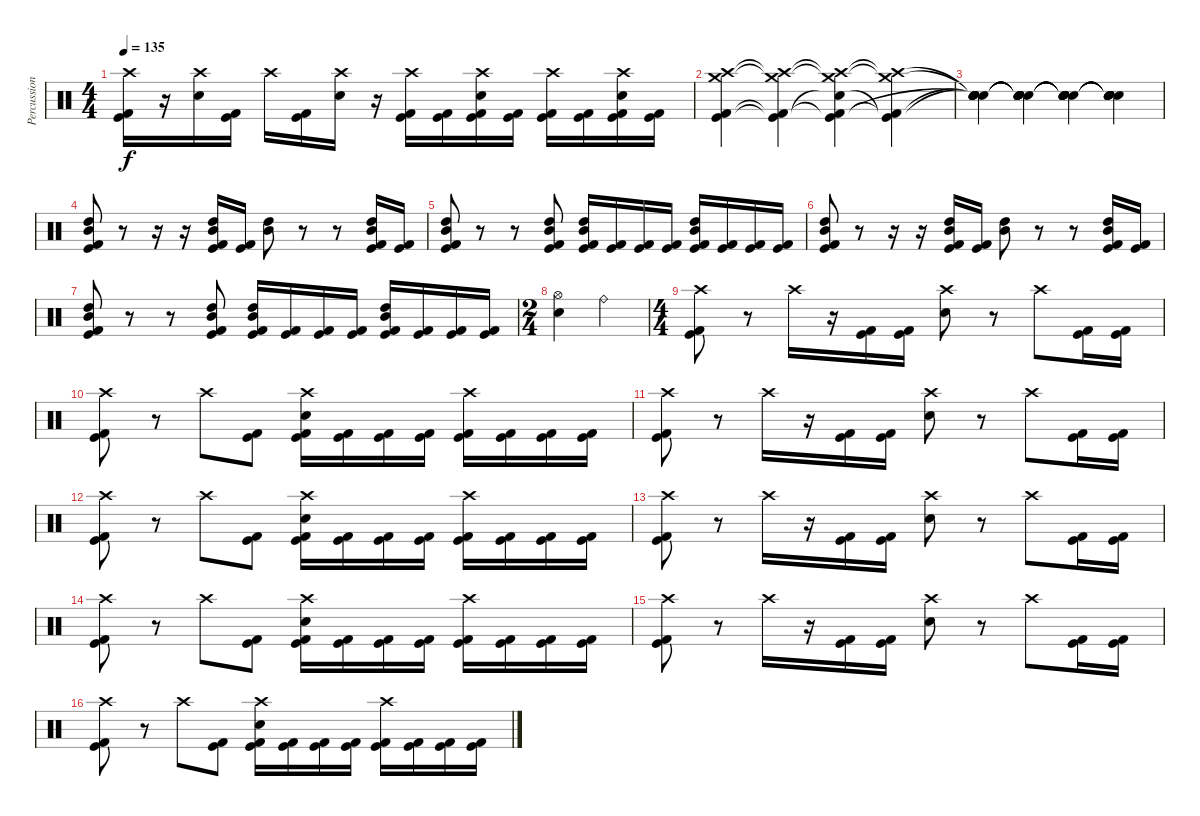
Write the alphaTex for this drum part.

\track ("Percussion" "Percussion") {instrument percussion}
\staff {score}
\articulation defaults
\ts (4 4)
\tempo 135
\clef neutral
\ks c
("Crash high (hit)" "Kick (hit)" "Kick (hit) 2").16{dy f} r.16 ("Crash high (hit)" "Electric Snare (hit)").16 ("Kick (hit) 2" "Kick (hit)").16 "Crash high (hit)".16 ("Kick (hit) 2" "Kick (hit)").16 ("Crash high (hit)" "Electric Snare (hit)").16 r.16 ("Crash high (hit)" "Kick (hit) 2" "Kick (hit)").16 ("Kick (hit) 2" "Kick (hit)").16 ("Crash high (hit)" "Electric Snare (hit)" "Kick (hit) 2" "Kick (hit)").16 ("Kick (hit) 2" "Kick (hit)").16 ("Crash high (hit)" "Kick (hit) 2" "Kick (hit)").16 ("Kick (hit) 2" "Kick (hit)").16 ("Crash high (hit)" "Electric Snare (hit)" "Kick (hit) 2" "Kick (hit)").16 ("Kick (hit) 2" "Kick (hit)").16 |
("Crash high (hit)" "Crash medium (hit)" "Kick (hit)" "Kick (hit) 2").4 ("Crash high (hit)"{t} "Crash medium (hit)"{t} "Kick (hit)"{t} "Kick (hit) 2"{t}).4 ("Crash high (hit)"{t} "Crash medium (hit)"{t} "Snare (hit)"{t} "Kick (hit)"{t} "Kick (hit) 2").4 ("Crash high (hit)"{t} "Crash medium (hit)"{t} "Kick (hit)"{t} "Kick (hit) 2"{t}).4 |
("Snare (hit)"{t} "Snare (hit)"{t} "Snare (hit)"{t} "Snare (hit)"{t} "Snare (hit)"{t} "Snare (hit)").4 ("Snare (hit)"{t} "Snare (hit)"{t} "Snare (hit)"{t} "Snare (hit)"{t} "Snare (hit)"{t} "Snare (hit)"{t}).4 ("Snare (hit)"{t} "Snare (hit)"{t} "Snare (hit)"{t} "Snare (hit)"{t} "Snare (hit)"{t} "Snare (hit)"{t}).4 ("Snare (hit)"{t} "Snare (hit)"{t} "Snare (hit)"{t} "Snare (hit)"{t} "Snare (hit)"{t} "Snare (hit)"{t}).4 |
("Mid Tom (hit)" "High Tom (hit)" "Kick (hit)" "Kick (hit) 2").8 r.8 r.16 r.16 ("Mid Tom (hit)" "High Tom (hit)" "Kick (hit)" "Kick (hit) 2").16 ("Kick (hit)" "Kick (hit) 2").16 ("Mid Tom (hit)" "High Tom (hit)").8 r.8 r.8 ("Mid Tom (hit)" "High Tom (hit)" "Kick (hit)" "Kick (hit) 2").16 ("Kick (hit)" "Kick (hit) 2").16 |
("Mid Tom (hit)" "High Tom (hit)" "Kick (hit)" "Kick (hit) 2").8 r.8 r.8 ("Mid Tom (hit)" "High Tom (hit)" "Kick (hit)" "Kick (hit) 2").8 ("Mid Tom (hit)" "High Tom (hit)" "Kick (hit)" "Kick (hit) 2").16 ("Kick (hit)" "Kick (hit) 2").16 ("Kick (hit)" "Kick (hit) 2").16 ("Kick (hit)" "Kick (hit) 2").16 ("Mid Tom (hit)" "High Tom (hit)" "Kick (hit)" "Kick (hit) 2").16 ("Kick (hit)" "Kick (hit) 2").16 ("Kick (hit)" "Kick (hit) 2").16 ("Kick (hit)" "Kick (hit) 2").16 |
("Mid Tom (hit)" "High Tom (hit)" "Kick (hit)" "Kick (hit) 2").8 r.8 r.16 r.16 ("Mid Tom (hit)" "High Tom (hit)" "Kick (hit)" "Kick (hit) 2").16 ("Kick (hit)" "Kick (hit) 2").16 ("Mid Tom (hit)" "High Tom (hit)").8 r.8 r.8 ("Mid Tom (hit)" "High Tom (hit)" "Kick (hit)" "Kick (hit) 2").16 ("Kick (hit)" "Kick (hit) 2").16 |
("Mid Tom (hit)" "High Tom (hit)" "Kick (hit)" "Kick (hit) 2").8 r.8 r.8 ("Mid Tom (hit)" "High Tom (hit)" "Kick (hit)" "Kick (hit) 2").8 ("Mid Tom (hit)" "High Tom (hit)" "Kick (hit)" "Kick (hit) 2").16 ("Kick (hit)" "Kick (hit) 2").16 ("Kick (hit)" "Kick (hit) 2").16 ("Kick (hit)" "Kick (hit) 2").16 ("Mid Tom (hit)" "High Tom (hit)" "Kick (hit)" "Kick (hit) 2").16 ("Kick (hit)" "Kick (hit) 2").16 ("Kick (hit)" "Kick (hit) 2").16 ("Kick (hit)" "Kick (hit) 2").16 |
\ts (2 4)
("Hi-Hat (open)" "Electric Snare (hit)").4 "Ride (bell)".4 |
\ts (4 4)
("Crash high (hit)" "Kick (hit)" "Kick (hit) 2").8 r.8 "Crash high (hit)".16 r.16 ("Kick (hit)" "Kick (hit) 2").16 ("Kick (hit)" "Kick (hit) 2").16 ("Crash high (hit)" "Electric Snare (hit)").8 r.8 "Crash high (hit)".8 ("Kick (hit)" "Kick (hit) 2").16 ("Kick (hit)" "Kick (hit) 2").16 |
("Crash high (hit)" "Kick (hit)" "Kick (hit) 2").8 r.8 "Crash high (hit)".8 ("Kick (hit)" "Kick (hit) 2").8 ("Crash high (hit)" "Electric Snare (hit)" "Kick (hit)" "Kick (hit) 2").16 ("Kick (hit)" "Kick (hit) 2").16 ("Kick (hit)" "Kick (hit) 2").16 ("Kick (hit)" "Kick (hit) 2").16 ("Crash high (hit)" "Kick (hit)" "Kick (hit) 2").16 ("Kick (hit)" "Kick (hit) 2").16 ("Kick (hit)" "Kick (hit) 2").16 ("Kick (hit)" "Kick (hit) 2").16 |
("Crash high (hit)" "Kick (hit)" "Kick (hit) 2").8 r.8 "Crash high (hit)".16 r.16 ("Kick (hit)" "Kick (hit) 2").16 ("Kick (hit)" "Kick (hit) 2").16 ("Crash high (hit)" "Electric Snare (hit)").8 r.8 "Crash high (hit)".8 ("Kick (hit)" "Kick (hit) 2").16 ("Kick (hit)" "Kick (hit) 2").16 |
("Crash high (hit)" "Kick (hit)" "Kick (hit) 2").8 r.8 "Crash high (hit)".8 ("Kick (hit)" "Kick (hit) 2").8 ("Crash high (hit)" "Electric Snare (hit)" "Kick (hit)" "Kick (hit) 2").16 ("Kick (hit)" "Kick (hit) 2").16 ("Kick (hit)" "Kick (hit) 2").16 ("Kick (hit)" "Kick (hit) 2").16 ("Crash high (hit)" "Kick (hit)" "Kick (hit) 2").16 ("Kick (hit)" "Kick (hit) 2").16 ("Kick (hit)" "Kick (hit) 2").16 ("Kick (hit)" "Kick (hit) 2").16 |
("Crash high (hit)" "Kick (hit)" "Kick (hit) 2").8 r.8 "Crash high (hit)".16 r.16 ("Kick (hit)" "Kick (hit) 2").16 ("Kick (hit)" "Kick (hit) 2").16 ("Crash high (hit)" "Electric Snare (hit)").8 r.8 "Crash high (hit)".8 ("Kick (hit)" "Kick (hit) 2").16 ("Kick (hit)" "Kick (hit) 2").16 |
("Crash high (hit)" "Kick (hit)" "Kick (hit) 2").8 r.8 "Crash high (hit)".8 ("Kick (hit)" "Kick (hit) 2").8 ("Crash high (hit)" "Electric Snare (hit)" "Kick (hit)" "Kick (hit) 2").16 ("Kick (hit)" "Kick (hit) 2").16 ("Kick (hit)" "Kick (hit) 2").16 ("Kick (hit)" "Kick (hit) 2").16 ("Crash high (hit)" "Kick (hit)" "Kick (hit) 2").16 ("Kick (hit)" "Kick (hit) 2").16 ("Kick (hit)" "Kick (hit) 2").16 ("Kick (hit)" "Kick (hit) 2").16 |
("Crash high (hit)" "Kick (hit)" "Kick (hit) 2").8 r.8 "Crash high (hit)".16 r.16 ("Kick (hit)" "Kick (hit) 2").16 ("Kick (hit)" "Kick (hit) 2").16 ("Crash high (hit)" "Electric Snare (hit)").8 r.8 "Crash high (hit)".8 ("Kick (hit)" "Kick (hit) 2").16 ("Kick (hit)" "Kick (hit) 2").16 |
("Crash high (hit)" "Kick (hit)" "Kick (hit) 2").8 r.8 "Crash high (hit)".8 ("Kick (hit)" "Kick (hit) 2").8 ("Crash high (hit)" "Electric Snare (hit)" "Kick (hit)" "Kick (hit) 2").16 ("Kick (hit)" "Kick (hit) 2").16 ("Kick (hit)" "Kick (hit) 2").16 ("Kick (hit)" "Kick (hit) 2").16 ("Crash high (hit)" "Kick (hit)" "Kick (hit) 2").16 ("Kick (hit)" "Kick (hit) 2").16 ("Kick (hit)" "Kick (hit) 2").16 ("Kick (hit)" "Kick (hit) 2").16
